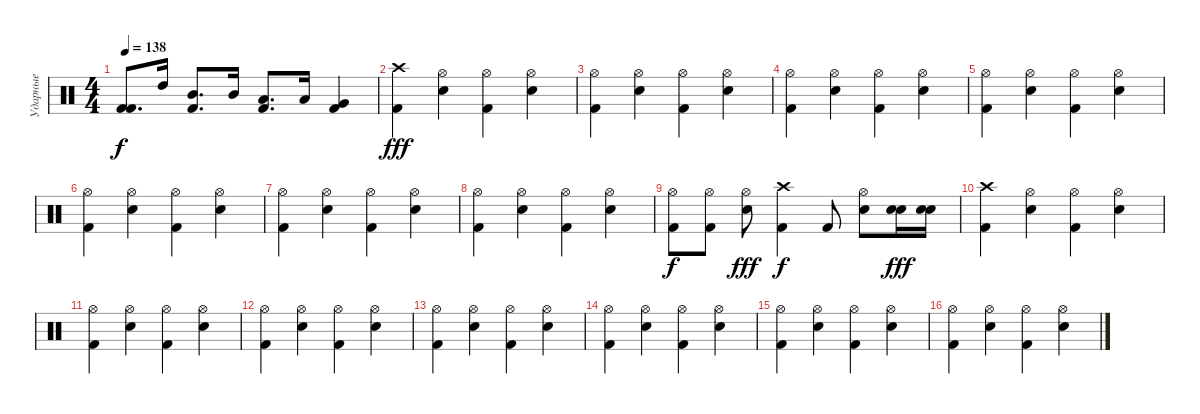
\track ("Ударные" "Ударные") {instrument percussion}
\staff {score}
\articulation defaults
\ts (4 4)
\tempo 138
\clef neutral
\ks c
("Kick (hit) 2" "Kick (hit) 2").8{d dy f} "High Tom (hit)".16 ("Mid Tom (hit)" "Kick (hit) 2").8{d} "Mid Tom (hit)".16 ("Low Tom (hit)" "Kick (hit) 2").8{d} "Low Tom (hit)".16 ("Very Low Tom (hit)" "Kick (hit) 2").4 |
("Crash high (hit)" "Kick (hit) 2").4{dy fff} ("Hi-Hat (open)" "Electric Snare (hit)").4 ("Hi-Hat (open)" "Kick (hit) 2").4 ("Hi-Hat (open)" "Electric Snare (hit)").4 |
("Hi-Hat (open)" "Kick (hit) 2").4 ("Hi-Hat (open)" "Electric Snare (hit)").4 ("Hi-Hat (open)" "Kick (hit) 2").4 ("Hi-Hat (open)" "Electric Snare (hit)").4 |
("Hi-Hat (open)" "Kick (hit) 2").4 ("Hi-Hat (open)" "Electric Snare (hit)").4 ("Hi-Hat (open)" "Kick (hit) 2").4 ("Hi-Hat (open)" "Electric Snare (hit)").4 |
("Hi-Hat (open)" "Kick (hit) 2").4 ("Hi-Hat (open)" "Electric Snare (hit)").4 ("Hi-Hat (open)" "Kick (hit) 2").4 ("Hi-Hat (open)" "Electric Snare (hit)").4 |
("Hi-Hat (open)" "Kick (hit) 2").4 ("Hi-Hat (open)" "Electric Snare (hit)").4 ("Hi-Hat (open)" "Kick (hit) 2").4 ("Hi-Hat (open)" "Electric Snare (hit)").4 |
("Hi-Hat (open)" "Kick (hit) 2").4 ("Hi-Hat (open)" "Electric Snare (hit)").4 ("Hi-Hat (open)" "Kick (hit) 2").4 ("Hi-Hat (open)" "Electric Snare (hit)").4 |
("Hi-Hat (open)" "Kick (hit) 2").4 ("Hi-Hat (open)" "Electric Snare (hit)").4 ("Hi-Hat (open)" "Kick (hit) 2").4 ("Hi-Hat (open)" "Electric Snare (hit)").4 |
("Hi-Hat (open)" "Kick (hit) 2").8{dy f} ("Hi-Hat (open)" "Kick (hit) 2").8 ("Hi-Hat (open)" "Electric Snare (hit)").8{dy fff} ("Crash high (hit)" "Kick (hit) 2").4{dy f} "Kick (hit) 2".8 ("Hi-Hat (open)" "Electric Snare (hit)").8 ("Electric Snare (hit)" "Electric Snare (hit)").16{dy fff} ("Electric Snare (hit)" "Electric Snare (hit)").16 |
("Crash high (hit)" "Kick (hit) 2").4 ("Hi-Hat (open)" "Electric Snare (hit)").4 ("Hi-Hat (open)" "Kick (hit) 2").4 ("Hi-Hat (open)" "Electric Snare (hit)").4 |
("Hi-Hat (open)" "Kick (hit) 2").4 ("Hi-Hat (open)" "Electric Snare (hit)").4 ("Hi-Hat (open)" "Kick (hit) 2").4 ("Hi-Hat (open)" "Electric Snare (hit)").4 |
("Hi-Hat (open)" "Kick (hit) 2").4 ("Hi-Hat (open)" "Electric Snare (hit)").4 ("Hi-Hat (open)" "Kick (hit) 2").4 ("Hi-Hat (open)" "Electric Snare (hit)").4 |
("Hi-Hat (open)" "Kick (hit) 2").4 ("Hi-Hat (open)" "Electric Snare (hit)").4 ("Hi-Hat (open)" "Kick (hit) 2").4 ("Hi-Hat (open)" "Electric Snare (hit)").4 |
("Hi-Hat (open)" "Kick (hit) 2").4 ("Hi-Hat (open)" "Electric Snare (hit)").4 ("Hi-Hat (open)" "Kick (hit) 2").4 ("Hi-Hat (open)" "Electric Snare (hit)").4 |
("Hi-Hat (open)" "Kick (hit) 2").4 ("Hi-Hat (open)" "Electric Snare (hit)").4 ("Hi-Hat (open)" "Kick (hit) 2").4 ("Hi-Hat (open)" "Electric Snare (hit)").4 |
("Hi-Hat (open)" "Kick (hit) 2").4 ("Hi-Hat (open)" "Electric Snare (hit)").4 ("Hi-Hat (open)" "Kick (hit) 2").4 ("Hi-Hat (open)" "Electric Snare (hit)").4
